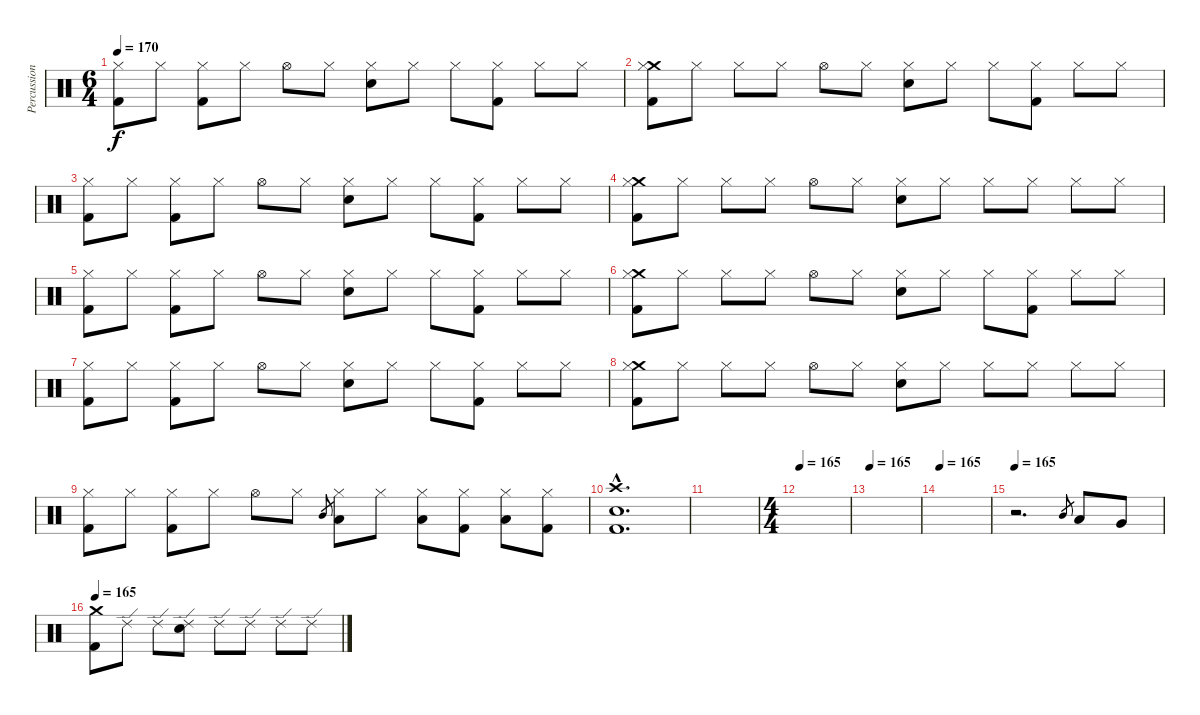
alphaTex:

\track ("Percussion" "Percussion") {instrument percussion}
\staff {score}
\articulation defaults
\ts (6 4)
\tempo 170
\clef neutral
\ks c
("Hi-Hat (closed)" "Kick (hit) 2").8{dy f} "Hi-Hat (closed)".8 ("Hi-Hat (closed)" "Kick (hit) 2").8 "Hi-Hat (closed)".8 "Hi-Hat (open)".8 "Hi-Hat (closed)".8 ("Hi-Hat (closed)" "Electric Snare (hit)").8 "Hi-Hat (closed)".8 "Hi-Hat (closed)".8 ("Hi-Hat (closed)" "Kick (hit) 2").8 "Hi-Hat (closed)".8 "Hi-Hat (closed)".8 |
("Crash medium (hit)" "Hi-Hat (closed)" "Kick (hit) 2").8 "Hi-Hat (closed)".8 "Hi-Hat (closed)".8 "Hi-Hat (closed)".8 "Hi-Hat (open)".8 "Hi-Hat (closed)".8 ("Hi-Hat (closed)" "Electric Snare (hit)").8 "Hi-Hat (closed)".8 "Hi-Hat (closed)".8 ("Hi-Hat (closed)" "Kick (hit) 2").8 "Hi-Hat (closed)".8 "Hi-Hat (closed)".8 |
("Hi-Hat (closed)" "Kick (hit) 2").8 "Hi-Hat (closed)".8 ("Hi-Hat (closed)" "Kick (hit) 2").8 "Hi-Hat (closed)".8 "Hi-Hat (open)".8 "Hi-Hat (closed)".8 ("Hi-Hat (closed)" "Electric Snare (hit)").8 "Hi-Hat (closed)".8 "Hi-Hat (closed)".8 ("Hi-Hat (closed)" "Kick (hit) 2").8 "Hi-Hat (closed)".8 "Hi-Hat (closed)".8 |
("Crash medium (hit)" "Hi-Hat (closed)" "Kick (hit) 2").8 "Hi-Hat (closed)".8 "Hi-Hat (closed)".8 "Hi-Hat (closed)".8 "Hi-Hat (open)".8 "Hi-Hat (closed)".8 ("Hi-Hat (closed)" "Electric Snare (hit)").8 "Hi-Hat (closed)".8 "Hi-Hat (closed)".8 "Hi-Hat (closed)".8 "Hi-Hat (closed)".8 "Hi-Hat (closed)".8 |
("Hi-Hat (closed)" "Kick (hit) 2").8 "Hi-Hat (closed)".8 ("Hi-Hat (closed)" "Kick (hit) 2").8 "Hi-Hat (closed)".8 "Hi-Hat (open)".8 "Hi-Hat (closed)".8 ("Hi-Hat (closed)" "Electric Snare (hit)").8 "Hi-Hat (closed)".8 "Hi-Hat (closed)".8 ("Hi-Hat (closed)" "Kick (hit) 2").8 "Hi-Hat (closed)".8 "Hi-Hat (closed)".8 |
("Crash medium (hit)" "Hi-Hat (closed)" "Kick (hit) 2").8 "Hi-Hat (closed)".8 "Hi-Hat (closed)".8 "Hi-Hat (closed)".8 "Hi-Hat (open)".8 "Hi-Hat (closed)".8 ("Hi-Hat (closed)" "Electric Snare (hit)").8 "Hi-Hat (closed)".8 "Hi-Hat (closed)".8 ("Hi-Hat (closed)" "Kick (hit) 2").8 "Hi-Hat (closed)".8 "Hi-Hat (closed)".8 |
("Hi-Hat (closed)" "Kick (hit) 2").8 "Hi-Hat (closed)".8 ("Hi-Hat (closed)" "Kick (hit) 2").8 "Hi-Hat (closed)".8 "Hi-Hat (open)".8 "Hi-Hat (closed)".8 ("Hi-Hat (closed)" "Electric Snare (hit)").8 "Hi-Hat (closed)".8 "Hi-Hat (closed)".8 ("Hi-Hat (closed)" "Kick (hit) 2").8 "Hi-Hat (closed)".8 "Hi-Hat (closed)".8 |
("Crash medium (hit)" "Hi-Hat (closed)" "Kick (hit) 2").8 "Hi-Hat (closed)".8 "Hi-Hat (closed)".8 "Hi-Hat (closed)".8 "Hi-Hat (open)".8 "Hi-Hat (closed)".8 ("Hi-Hat (closed)" "Electric Snare (hit)").8 "Hi-Hat (closed)".8 "Hi-Hat (closed)".8 "Hi-Hat (closed)".8 "Hi-Hat (closed)".8 "Hi-Hat (closed)".8 |
("Hi-Hat (closed)" "Kick (hit) 2").8 "Hi-Hat (closed)".8 ("Hi-Hat (closed)" "Kick (hit) 2").8 "Hi-Hat (closed)".8 "Hi-Hat (open)".8 "Hi-Hat (closed)".8 "Mid Tom (hit)".8{gr} ("Hi-Hat (closed)" "Low Tom (hit)").8 "Hi-Hat (closed)".8 ("Hi-Hat (closed)" "Low Floor Tom (hit)").8 ("Hi-Hat (closed)" "Kick (hit) 2").8 ("Hi-Hat (closed)" "Low Floor Tom (hit)").8 ("Hi-Hat (closed)" "Kick (hit) 2").8 |
("Crash high (hit)"{hac} "Electric Snare (hit)"{hac} "Kick (hit) 2"{hac}).1{d} |
|
\ts (4 4)
\tempo 165
|
\tempo 165
|
\tempo 165
|
\tempo 165
r.2{d} "Mid Tom (hit)".8{gr} "Low Tom (hit)".8 "Very Low Tom (hit)".8 |
\tempo 165
("Crash medium (hit)" "Kick (hit) 2").8 "Ride (edge) 2".8 "Ride (edge) 2".8 ("Ride (edge) 2" "Electric Snare (hit)").8 "Ride (edge) 2".8 "Ride (edge) 2".8 "Ride (edge) 2".8 "Ride (edge) 2".8
